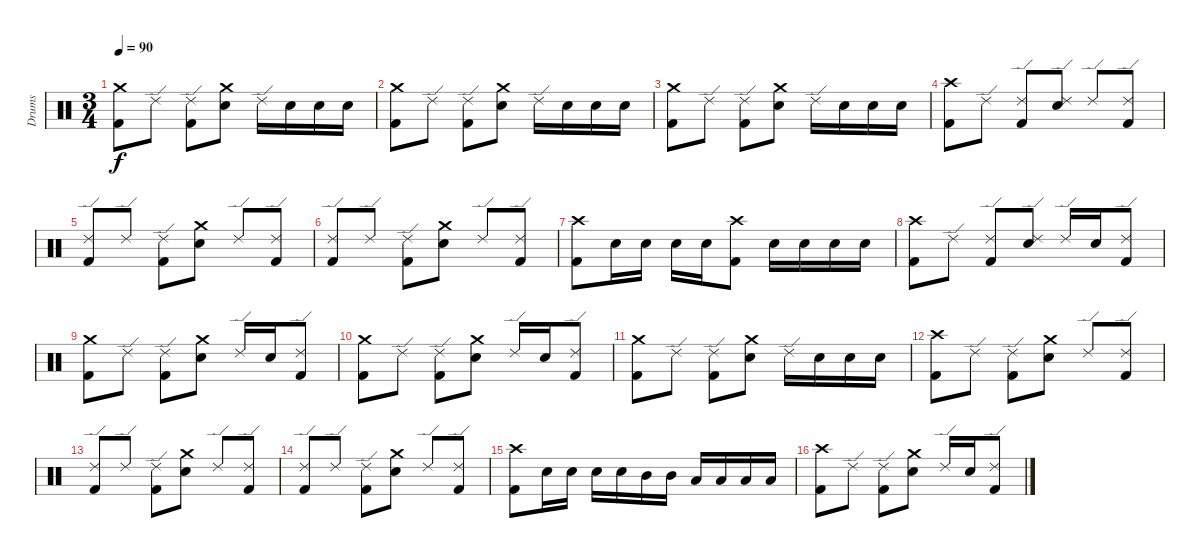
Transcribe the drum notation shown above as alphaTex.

\track ("Drums" "Drums") {instrument percussion}
\staff {score}
\articulation defaults
\ts (3 4)
\tempo 90
\clef neutral
\ks c
("Crash medium (hit)" "Kick (hit) 2").8{dy f} "Ride (edge) 2".8 ("Ride (edge) 2" "Kick (hit) 2").8 ("Crash medium (hit)" "Electric Snare (hit)").8 "Ride (edge) 2".16 "Electric Snare (hit)".16 "Electric Snare (hit)".16 "Electric Snare (hit)".16 |
("Crash medium (hit)" "Kick (hit) 2").8 "Ride (edge) 2".8 ("Ride (edge) 2" "Kick (hit) 2").8 ("Crash medium (hit)" "Electric Snare (hit)").8 "Ride (edge) 2".16 "Electric Snare (hit)".16 "Electric Snare (hit)".16 "Electric Snare (hit)".16 |
("Crash medium (hit)" "Kick (hit) 2").8 "Ride (edge) 2".8 ("Ride (edge) 2" "Kick (hit) 2").8 ("Crash medium (hit)" "Electric Snare (hit)").8 "Ride (edge) 2".16 "Electric Snare (hit)".16 "Electric Snare (hit)".16 "Electric Snare (hit)".16 |
("Crash high (hit)" "Kick (hit) 2").8 "Ride (edge) 2".8 ("Ride (edge) 2" "Kick (hit) 2").8 ("Ride (edge) 2" "Electric Snare (hit)").8 "Ride (edge) 2".8 ("Ride (edge) 2" "Kick (hit) 2").8 |
("Ride (edge) 2" "Kick (hit) 2").8 "Ride (edge) 2".8 ("Ride (edge) 2" "Kick (hit) 2").8 ("Crash medium (hit)" "Electric Snare (hit)").8 "Ride (edge) 2".8 ("Ride (edge) 2" "Kick (hit) 2").8 |
("Ride (edge) 2" "Kick (hit) 2").8 "Ride (edge) 2".8 ("Ride (edge) 2" "Kick (hit) 2").8 ("Crash medium (hit)" "Electric Snare (hit)").8 "Ride (edge) 2".8 ("Ride (edge) 2" "Kick (hit) 2").8 |
("Crash high (hit)" "Kick (hit) 2").8 "Electric Snare (hit)".16 "Electric Snare (hit)".16 "Electric Snare (hit)".16 "Electric Snare (hit)".16 ("Crash high (hit)" "Kick (hit) 2").8 "Electric Snare (hit)".16 "Electric Snare (hit)".16 "Electric Snare (hit)".16 "Electric Snare (hit)".16 |
("Crash high (hit)" "Kick (hit) 2").8 "Ride (edge) 2".8 ("Ride (edge) 2" "Kick (hit) 2").8 ("Ride (edge) 2" "Electric Snare (hit)").8 "Ride (edge) 2".16 "Electric Snare (hit)".16 ("Ride (edge) 2" "Kick (hit) 2").8 |
("Crash medium (hit)" "Kick (hit) 2").8 "Ride (edge) 2".8 ("Ride (edge) 2" "Kick (hit) 2").8 ("Crash medium (hit)" "Electric Snare (hit)").8 "Ride (edge) 2".16 "Electric Snare (hit)".16 ("Ride (edge) 2" "Kick (hit) 2").8 |
("Crash medium (hit)" "Kick (hit) 2").8 "Ride (edge) 2".8 ("Ride (edge) 2" "Kick (hit) 2").8 ("Crash medium (hit)" "Electric Snare (hit)").8 "Ride (edge) 2".16 "Electric Snare (hit)".16 ("Ride (edge) 2" "Kick (hit) 2").8 |
("Crash medium (hit)" "Kick (hit) 2").8 "Ride (edge) 2".8 ("Ride (edge) 2" "Kick (hit) 2").8 ("Crash medium (hit)" "Electric Snare (hit)").8 "Ride (edge) 2".16 "Electric Snare (hit)".16 "Electric Snare (hit)".16 "Electric Snare (hit)".16 |
("Crash high (hit)" "Kick (hit) 2").8 "Ride (edge) 2".8 ("Ride (edge) 2" "Kick (hit) 2").8 ("Crash medium (hit)" "Electric Snare (hit)").8 "Ride (edge) 2".8 ("Ride (edge) 2" "Kick (hit) 2").8 |
("Ride (edge) 2" "Kick (hit) 2").8 "Ride (edge) 2".8 ("Ride (edge) 2" "Kick (hit) 2").8 ("Crash medium (hit)" "Electric Snare (hit)").8 "Ride (edge) 2".8 ("Ride (edge) 2" "Kick (hit) 2").8 |
("Ride (edge) 2" "Kick (hit) 2").8 "Ride (edge) 2".8 ("Ride (edge) 2" "Kick (hit) 2").8 ("Crash medium (hit)" "Electric Snare (hit)").8 "Ride (edge) 2".8 ("Ride (edge) 2" "Kick (hit) 2").8 |
("Crash high (hit)" "Kick (hit) 2").8 "Electric Snare (hit)".16 "Electric Snare (hit)".16 "Electric Snare (hit)".16 "Electric Snare (hit)".16 "Mid Tom (hit)".16 "Mid Tom (hit)".16 "Low Tom (hit)".16 "Low Tom (hit)".16 "Low Tom (hit)".16 "Low Tom (hit)".16 |
("Crash high (hit)" "Kick (hit) 2").8 "Ride (edge) 2".8 ("Ride (edge) 2" "Kick (hit) 2").8 ("Crash medium (hit)" "Electric Snare (hit)").8 "Ride (edge) 2".16 "Electric Snare (hit)".16 ("Ride (edge) 2" "Kick (hit) 2").8
